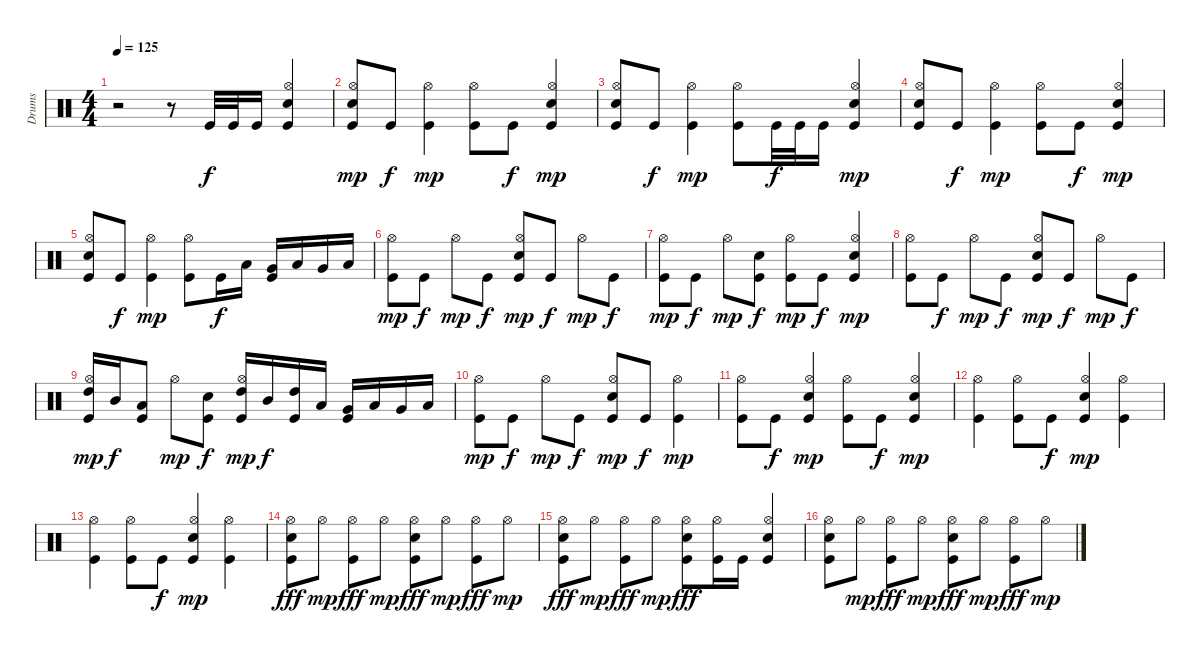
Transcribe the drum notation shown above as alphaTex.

\track ("Drums" "Drums") {instrument percussion}
\staff {score}
\articulation defaults
\ts (4 4)
\tempo 125
\clef neutral
\ks c
r.2{dy f} r.8 "Kick (hit)".32 "Kick (hit)".32 "Kick (hit)".16 ("Hi-Hat (open)" "Snare (hit) 2" "Kick (hit)").4 |
("Hi-Hat (open)" "Snare (hit) 2" "Kick (hit)").8{dy mp} "Kick (hit)".8{dy f} ("Hi-Hat (open)" "Kick (hit)").4{dy mp} ("Hi-Hat (open)" "Kick (hit)").8 "Kick (hit)".8{dy f} ("Hi-Hat (open)" "Snare (hit) 2" "Kick (hit)").4{dy mp} |
("Hi-Hat (open)" "Snare (hit) 2" "Kick (hit)").8 "Kick (hit)".8{dy f} ("Hi-Hat (open)" "Kick (hit)").4{dy mp} ("Hi-Hat (open)" "Kick (hit)").8 "Kick (hit)".32{dy f} "Kick (hit)".32 "Kick (hit)".16 ("Hi-Hat (open)" "Snare (hit) 2" "Kick (hit)").4{dy mp} |
("Hi-Hat (open)" "Snare (hit) 2" "Kick (hit)").8 "Kick (hit)".8{dy f} ("Hi-Hat (open)" "Kick (hit)").4{dy mp} ("Hi-Hat (open)" "Kick (hit)").8 "Kick (hit)".8{dy f} ("Hi-Hat (open)" "Snare (hit) 2" "Kick (hit)").4{dy mp} |
("Hi-Hat (open)" "Snare (hit) 2" "Kick (hit)").8 "Kick (hit)".8{dy f} ("Hi-Hat (open)" "Kick (hit)").4{dy mp} ("Hi-Hat (open)" "Kick (hit)").8 "Kick (hit)".16{dy f} "Low Tom (hit)".16 ("Very Low Tom (hit)" "Kick (hit)").16 "Low Tom (hit)".16 "Very Low Tom (hit)".16 "Low Floor Tom (hit)".16 |
("Hi-Hat (open)" "Kick (hit)").8{dy mp} "Kick (hit)".8{dy f} "Hi-Hat (open)".8{dy mp} "Kick (hit)".8{dy f} ("Hi-Hat (open)" "Snare (hit) 2" "Kick (hit)").8{dy mp} "Kick (hit)".8{dy f} "Hi-Hat (open)".8{dy mp} "Kick (hit)".8{dy f} |
("Hi-Hat (open)" "Kick (hit)").8{dy mp} "Kick (hit)".8{dy f} "Hi-Hat (open)".8{dy mp} ("Snare (hit) 2" "Kick (hit)").8{dy f} ("Hi-Hat (open)" "Kick (hit)").8{dy mp} "Kick (hit)".8{dy f} ("Hi-Hat (open)" "Snare (hit) 2" "Kick (hit)").4{dy mp} |
("Hi-Hat (open)" "Kick (hit)").8 "Kick (hit)".8{dy f} "Hi-Hat (open)".8{dy mp} "Kick (hit)".8{dy f} ("Hi-Hat (open)" "Snare (hit) 2" "Kick (hit)").8{dy mp} "Kick (hit)".8{dy f} "Hi-Hat (open)".8{dy mp} "Kick (hit)".8{dy f} |
("Hi-Hat (open)" "High Tom (hit)" "Kick (hit)").16{dy mp} "Mid Tom (hit)".16{dy f} ("Low Tom (hit)" "Kick (hit)").8 "Hi-Hat (open)".8{dy mp} ("Snare (hit) 2" "Kick (hit)").8{dy f} ("Hi-Hat (open)" "High Tom (hit)" "Kick (hit)").16{dy mp} "Mid Tom (hit)".16{dy f} ("High Tom (hit)" "Kick (hit)").16 "Low Tom (hit)".16 ("Very Low Tom (hit)" "Kick (hit)").16 "Low Tom (hit)".16 "Very Low Tom (hit)".16 "Low Floor Tom (hit)".16 |
("Hi-Hat (open)" "Kick (hit)").8{dy mp} "Kick (hit)".8{dy f} "Hi-Hat (open)".8{dy mp} "Kick (hit)".8{dy f} ("Hi-Hat (open)" "Snare (hit) 2" "Kick (hit)").8{dy mp} "Kick (hit)".8{dy f} ("Hi-Hat (open)" "Kick (hit)").4{dy mp} |
("Hi-Hat (open)" "Kick (hit)").8 "Kick (hit)".8{dy f} ("Hi-Hat (open)" "Snare (hit) 2" "Kick (hit)").4{dy mp} ("Hi-Hat (open)" "Kick (hit)").8 "Kick (hit)".8{dy f} ("Hi-Hat (open)" "Snare (hit) 2" "Kick (hit)").4{dy mp} |
("Hi-Hat (open)" "Kick (hit)").4 ("Hi-Hat (open)" "Kick (hit)").8 "Kick (hit)".8{dy f} ("Hi-Hat (open)" "Snare (hit) 2" "Kick (hit)").4{dy mp} ("Hi-Hat (open)" "Kick (hit)").4 |
("Hi-Hat (open)" "Kick (hit)").4 ("Hi-Hat (open)" "Kick (hit)").8 "Kick (hit)".8{dy f} ("Hi-Hat (open)" "Snare (hit) 2" "Kick (hit)").4{dy mp} ("Hi-Hat (open)" "Kick (hit)").4 |
("Hi-Hat (open)" "Snare (hit) 2" "Kick (hit)").8{dy fff} "Hi-Hat (open)".8{dy mp} ("Hi-Hat (open)" "Kick (hit)").8{dy fff} "Hi-Hat (open)".8{dy mp} ("Hi-Hat (open)" "Snare (hit) 2" "Kick (hit)").8{dy fff} "Hi-Hat (open)".8{dy mp} ("Hi-Hat (open)" "Kick (hit)").8{dy fff} "Hi-Hat (open)".8{dy mp} |
("Hi-Hat (open)" "Snare (hit) 2" "Kick (hit)").8{dy fff} "Hi-Hat (open)".8{dy mp} ("Hi-Hat (open)" "Kick (hit)").8{dy fff} "Hi-Hat (open)".8{dy mp} ("Hi-Hat (open)" "Snare (hit) 2" "Kick (hit)").8{dy fff} ("Hi-Hat (open)" "Kick (hit)").16 "Kick (hit)".16 ("Hi-Hat (open)" "Electric Snare (hit)" "Kick (hit)").4 |
("Hi-Hat (open)" "Snare (hit) 2" "Kick (hit)").8 "Hi-Hat (open)".8{dy mp} ("Hi-Hat (open)" "Kick (hit)").8{dy fff} "Hi-Hat (open)".8{dy mp} ("Hi-Hat (open)" "Snare (hit) 2" "Kick (hit)").8{dy fff} "Hi-Hat (open)".8{dy mp} ("Hi-Hat (open)" "Kick (hit)").8{dy fff} "Hi-Hat (open)".8{dy mp}
